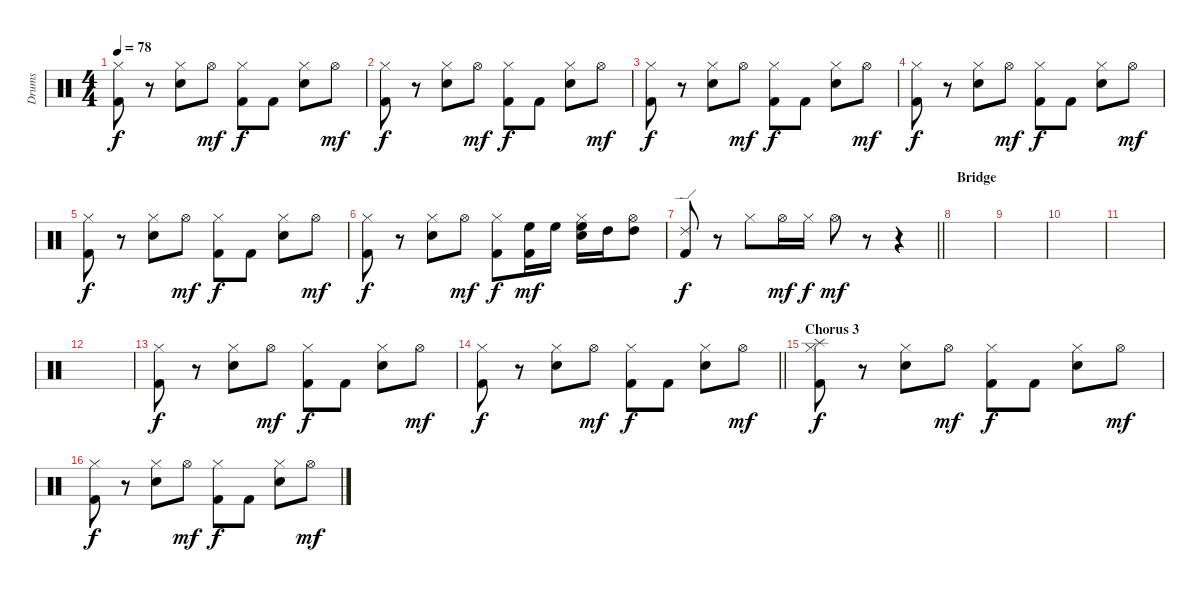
\track ("Drums" "Drums") {instrument percussion}
\staff {score}
\articulation defaults
\ts (4 4)
\tempo 78
\clef neutral
\ks c
("Hi-Hat (closed)" "Kick (hit) 2").8{dy f} r.8 ("Electric Snare (hit)" "Hi-Hat (closed)").8 "Hi-Hat (open)".8{dy mf} ("Hi-Hat (closed)" "Kick (hit) 2").8{dy f} "Kick (hit) 2".8 ("Electric Snare (hit)" "Hi-Hat (closed)").8 "Hi-Hat (open)".8{dy mf} |
("Hi-Hat (closed)" "Kick (hit) 2").8{dy f} r.8 ("Electric Snare (hit)" "Hi-Hat (closed)").8 "Hi-Hat (open)".8{dy mf} ("Hi-Hat (closed)" "Kick (hit) 2").8{dy f} "Kick (hit) 2".8 ("Electric Snare (hit)" "Hi-Hat (closed)").8 "Hi-Hat (open)".8{dy mf} |
("Hi-Hat (closed)" "Kick (hit) 2").8{dy f} r.8 ("Electric Snare (hit)" "Hi-Hat (closed)").8 "Hi-Hat (open)".8{dy mf} ("Hi-Hat (closed)" "Kick (hit) 2").8{dy f} "Kick (hit) 2".8 ("Electric Snare (hit)" "Hi-Hat (closed)").8 "Hi-Hat (open)".8{dy mf} |
("Hi-Hat (closed)" "Kick (hit) 2").8{dy f} r.8 ("Electric Snare (hit)" "Hi-Hat (closed)").8 "Hi-Hat (open)".8{dy mf} ("Hi-Hat (closed)" "Kick (hit) 2").8{dy f} "Kick (hit) 2".8 ("Electric Snare (hit)" "Hi-Hat (closed)").8 "Hi-Hat (open)".8{dy mf} |
("Hi-Hat (closed)" "Kick (hit) 2").8{dy f} r.8 ("Electric Snare (hit)" "Hi-Hat (closed)").8 "Hi-Hat (open)".8{dy mf} ("Hi-Hat (closed)" "Kick (hit) 2").8{dy f} "Kick (hit) 2".8 ("Electric Snare (hit)" "Hi-Hat (closed)").8 "Hi-Hat (open)".8{dy mf} |
("Hi-Hat (closed)" "Kick (hit) 2").8{dy f} r.8 ("Electric Snare (hit)" "Hi-Hat (closed)").8 "Hi-Hat (open)".8{dy mf} ("Hi-Hat (closed)" "Kick (hit) 2").8{dy f} ("High Floor Tom (hit)" "Kick (hit) 2").16{dy mf} "High Floor Tom (hit)".16 ("High Floor Tom (hit)" "Electric Snare (hit)" "Hi-Hat (closed)").16 "High Tom (hit)".16 ("High Tom (hit)" "Hi-Hat (open)").8 |
\barLineRight lightlight
("Ride (edge) 2" "Kick (hit) 2").8{dy f} r.8 "Hi-Hat (closed)".8 "Hi-Hat (open)".16{dy mf} "Hi-Hat (closed)".16{dy f} "Hi-Hat (open)".8{dy mf} r.8 r.4 |
\section ("" "Bridge")
|
|
|
|
|
("Hi-Hat (closed)" "Kick (hit) 2").8{dy f} r.8 ("Electric Snare (hit)" "Hi-Hat (closed)").8 "Hi-Hat (open)".8{dy mf} ("Hi-Hat (closed)" "Kick (hit) 2").8{dy f} "Kick (hit) 2".8 ("Electric Snare (hit)" "Hi-Hat (closed)").8 "Hi-Hat (open)".8{dy mf} |
\barLineRight lightlight
("Hi-Hat (closed)" "Kick (hit) 2").8{dy f} r.8 ("Electric Snare (hit)" "Hi-Hat (closed)").8 "Hi-Hat (open)".8{dy mf} ("Hi-Hat (closed)" "Kick (hit) 2").8{dy f} "Kick (hit) 2".8 ("Electric Snare (hit)" "Hi-Hat (closed)").8 "Hi-Hat (open)".8{dy mf} |
\section ("" "Chorus 3")
("Splash (hit)" "Hi-Hat (closed)" "Kick (hit) 2").8{dy f} r.8 ("Electric Snare (hit)" "Hi-Hat (closed)").8 "Hi-Hat (open)".8{dy mf} ("Hi-Hat (closed)" "Kick (hit) 2").8{dy f} "Kick (hit) 2".8 ("Electric Snare (hit)" "Hi-Hat (closed)").8 "Hi-Hat (open)".8{dy mf} |
("Hi-Hat (closed)" "Kick (hit) 2").8{dy f} r.8 ("Electric Snare (hit)" "Hi-Hat (closed)").8 "Hi-Hat (open)".8{dy mf} ("Hi-Hat (closed)" "Kick (hit) 2").8{dy f} "Kick (hit) 2".8 ("Electric Snare (hit)" "Hi-Hat (closed)").8 "Hi-Hat (open)".8{dy mf}
